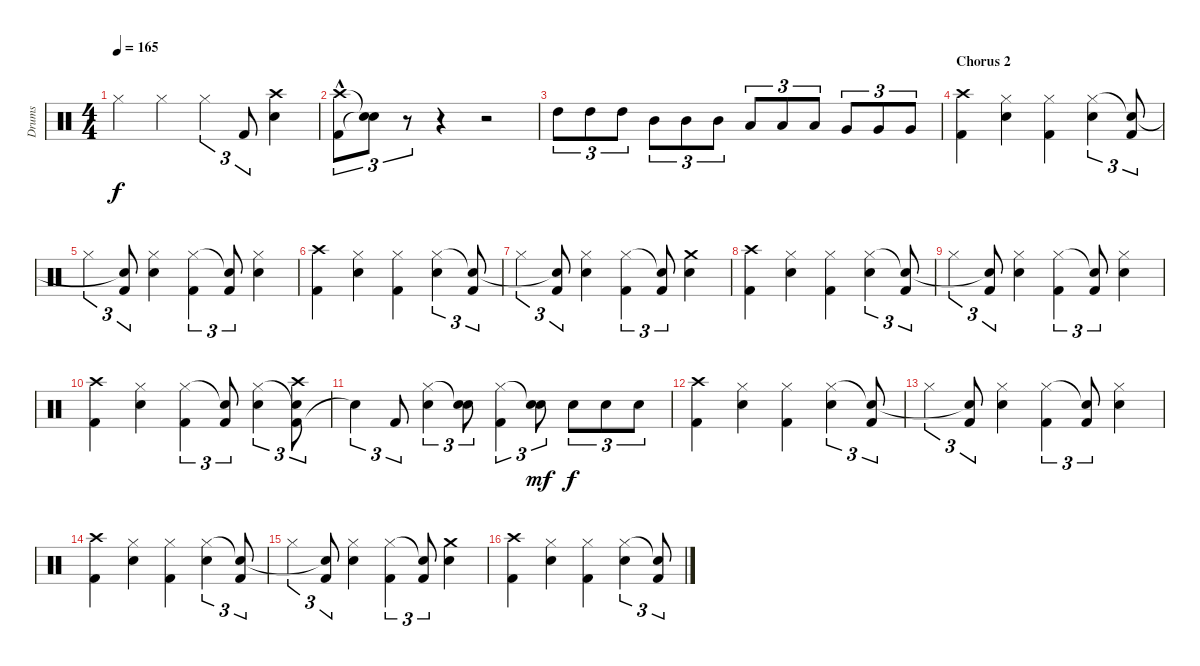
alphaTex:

\track ("Drums" "Drums") {instrument percussion}
\staff {score}
\articulation defaults
\ts (4 4)
\tempo 165
\clef neutral
\ks c "Hi-Hat (closed)".4{dy f} "Hi-Hat (closed)".4 "Hi-Hat (closed)".4{tu (3 2)} "Kick (hit) 2".8{tu (3 2)}
("Snare (hit) 2" "Crash high (hit)").4 |
("Kick (hit) 2" "Crash high (hit)"{hac}).8{tu (3 2)} ("Snare (hit)"{t} "Snare (hit)"{t}).8{tu (3 2)} r.8{tu (3 2)} r.4 r.2 |
"High Tom (hit)".8{tu (3 2)} "High Tom (hit)".8{tu (3 2)} "High Tom (hit)".8{tu (3 2)} "Mid Tom (hit)".8{tu (3 2)} "Mid Tom (hit)".8{tu (3 2)} "Mid Tom (hit)".8{tu (3 2)} "Low Tom (hit)".8{tu (3 2)} "Low Tom (hit)".8{tu (3 2)} "Low Tom (hit)".8{tu (3 2)} "Very Low Tom (hit)".8{tu (3 2)} "Very Low Tom (hit)".8{tu (3 2)} "Very Low Tom (hit)".8{tu (3 2)} |
\section ("" "Chorus 2")
("Kick (hit) 2" "Crash high (hit)").4 ("Snare (hit) 2" "Hi-Hat (closed)").4 ("Kick (hit) 2" "Hi-Hat (closed)").4 ("Snare (hit) 2" "Hi-Hat (closed)").4{tu (3 2)} ("Kick (hit) 2" "Snare (hit)"{t}).8{tu (3 2)} |
"Hi-Hat (closed)".4{tu (3 2)} ("Kick (hit) 2" "Snare (hit)"{t}).8{tu (3 2)} ("Snare (hit) 2" "Hi-Hat (closed)").4 ("Kick (hit) 2" "Hi-Hat (closed)").4{tu (3 2)} ("Kick (hit) 2" "Snare (hit)"{t}).8{tu (3 2)} ("Snare (hit) 2" "Hi-Hat (closed)").4 |
("Kick (hit) 2" "Crash high (hit)").4 ("Snare (hit) 2" "Hi-Hat (closed)").4 ("Kick (hit) 2" "Hi-Hat (closed)").4 ("Snare (hit) 2" "Hi-Hat (closed)").4{tu (3 2)} ("Kick (hit) 2" "Snare (hit)"{t}).8{tu (3 2)} |
"Hi-Hat (closed)".4{tu (3 2)} ("Kick (hit) 2" "Snare (hit)"{t}).8{tu (3 2)} ("Snare (hit) 2" "Hi-Hat (closed)").4 ("Kick (hit) 2" "Hi-Hat (closed)").4{tu (3 2)} ("Kick (hit) 2" "Snare (hit)"{t}).8{tu (3 2)} ("Snare (hit) 2" "Crash medium (hit)").4 |
("Kick (hit) 2" "Crash high (hit)").4 ("Snare (hit) 2" "Hi-Hat (closed)").4 ("Kick (hit) 2" "Hi-Hat (closed)").4 ("Snare (hit) 2" "Hi-Hat (closed)").4{tu (3 2)} ("Kick (hit) 2" "Snare (hit)"{t}).8{tu (3 2)} |
"Hi-Hat (closed)".4{tu (3 2)} ("Kick (hit) 2" "Snare (hit)"{t}).8{tu (3 2)} ("Snare (hit) 2" "Hi-Hat (closed)").4 ("Kick (hit) 2" "Hi-Hat (closed)").4{tu (3 2)} ("Kick (hit) 2" "Snare (hit)"{t}).8{tu (3 2)} ("Snare (hit) 2" "Hi-Hat (closed)").4 |
("Kick (hit) 2" "Crash high (hit)").4 ("Snare (hit) 2" "Hi-Hat (closed)").4 ("Kick (hit) 2" "Hi-Hat (closed)").4{tu (3 2)} ("Kick (hit) 2" "Snare (hit)"{t}).8{tu (3 2)} ("Snare (hit) 2" "Hi-Hat (closed)").4{tu (3 2)} ("Kick (hit) 2" "Snare (hit)"{t} "Crash high (hit)").8{tu (3 2)} |
"Snare (hit)"{t}.4{tu (3 2)} "Kick (hit) 2".8{tu (3 2)} ("Snare (hit) 2" "Hi-Hat (closed)").4{tu (3 2)} ("Snare (hit) 2" "Snare (hit)"{t}).8{tu (3 2)} ("Kick (hit) 2" "Hi-Hat (closed)").4{tu (3 2)} ("Snare (hit) 2" "Snare (hit)"{t}).8{tu (3 2) dy mf} "Snare (hit) 2".8{tu (3 2) dy f} "Snare (hit) 2".8{tu (3 2)} "Snare (hit) 2".8{tu (3 2)} |
("Kick (hit) 2" "Crash high (hit)").4 ("Snare (hit) 2" "Hi-Hat (closed)").4 ("Kick (hit) 2" "Hi-Hat (closed)").4 ("Snare (hit) 2" "Hi-Hat (closed)").4{tu (3 2)} ("Kick (hit) 2" "Snare (hit)"{t}).8{tu (3 2)} |
"Hi-Hat (closed)".4{tu (3 2)} ("Kick (hit) 2" "Snare (hit)"{t}).8{tu (3 2)} ("Snare (hit) 2" "Hi-Hat (closed)").4 ("Kick (hit) 2" "Hi-Hat (closed)").4{tu (3 2)} ("Kick (hit) 2" "Snare (hit)"{t}).8{tu (3 2)} ("Snare (hit) 2" "Hi-Hat (closed)").4 |
("Kick (hit) 2" "Crash high (hit)").4 ("Snare (hit) 2" "Hi-Hat (closed)").4 ("Kick (hit) 2" "Hi-Hat (closed)").4 ("Snare (hit) 2" "Hi-Hat (closed)").4{tu (3 2)} ("Kick (hit) 2" "Snare (hit)"{t}).8{tu (3 2)} |
"Hi-Hat (closed)".4{tu (3 2)} ("Kick (hit) 2" "Snare (hit)"{t}).8{tu (3 2)} ("Snare (hit) 2" "Hi-Hat (closed)").4 ("Kick (hit) 2" "Hi-Hat (closed)").4{tu (3 2)} ("Kick (hit) 2" "Snare (hit)"{t}).8{tu (3 2)} ("Snare (hit) 2" "Crash medium (hit)").4 |
("Kick (hit) 2" "Crash high (hit)").4 ("Snare (hit) 2" "Hi-Hat (closed)").4 ("Kick (hit) 2" "Hi-Hat (closed)").4 ("Snare (hit) 2" "Hi-Hat (closed)").4{tu (3 2)} ("Kick (hit) 2" "Snare (hit)"{t}).8{tu (3 2)}
